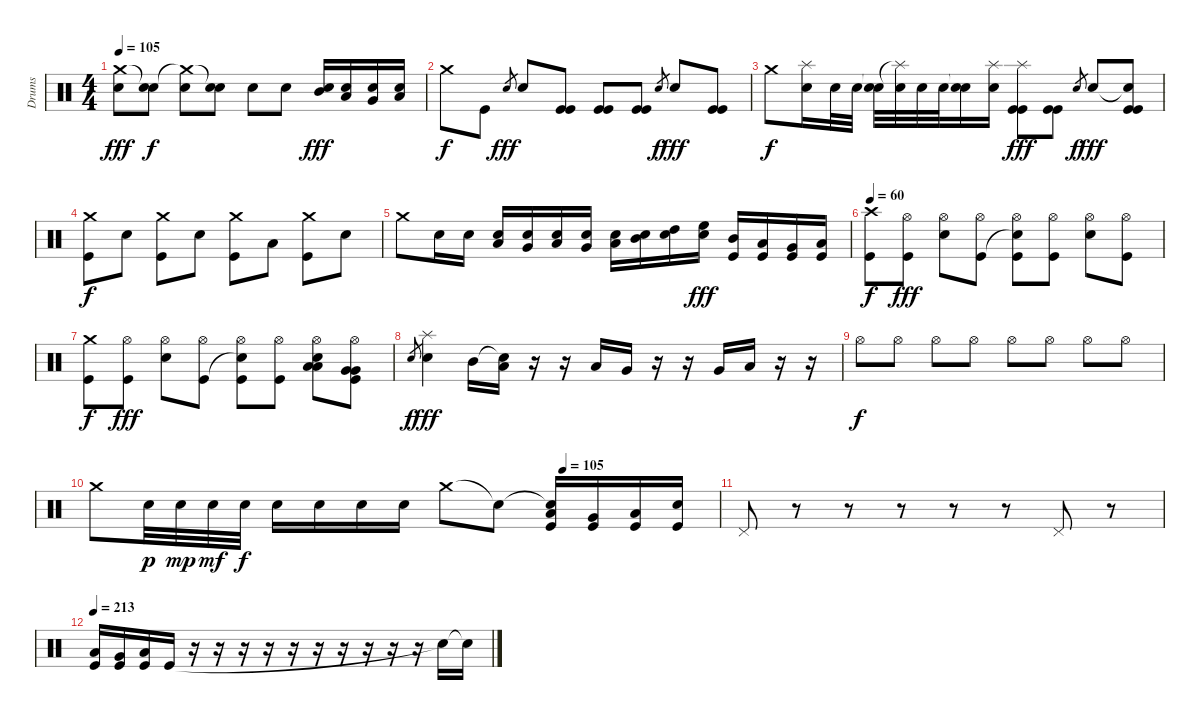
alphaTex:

\track ("Drums" "Drums") {instrument percussion}
\staff {score}
\articulation defaults
\ts (4 4)
\tempo 105
\clef neutral
\ks c
("Crash medium (hit)" "Snare (hit) 2").8{dy fff} ("Snare (hit)"{t} "Snare (hit) 2").8{dy f} ("Crash medium (hit)"{t} "Snare (hit) 2").8 ("Snare (hit)"{t} "Snare (hit) 2").8 "Snare (hit) 2".8 "Snare (hit) 2".8 ("Mid Tom (hit)" "Snare (hit) 2").16{dy fff} ("Low Tom (hit)" "Snare (hit) 2").16 ("Very Low Tom (hit)" "Snare (hit) 2").16 ("Low Floor Tom (hit)" "Snare (hit) 2").16 |
"Crash medium (hit)".8{dy f} "Kick (hit)".8 "Snare (hit) 2".8{gr dy fff} "Snare (hit) 2".8 ("Kick (hit)" "Kick (hit)").8 ("Kick (hit)" "Kick (hit)").8 ("Kick (hit)" "Kick (hit)").8 "Snare (hit) 2".8{gr dy f} "Snare (hit) 2".8{dy fff} ("Kick (hit)" "Kick (hit)").8 |
"Crash medium (hit)".8{dy f} ("Splash (hit)" "Snare (hit) 2").16 "Snare (hit) 2".32 "Snare (hit) 2".32 ("Snare (hit)"{t} "Snare (hit) 2").32 ("Splash (hit)"{t} "Snare (hit) 2").32 "Snare (hit) 2".32 "Snare (hit) 2".32 ("Snare (hit)"{t} "Snare (hit) 2").16 ("Splash (hit)" "Snare (hit) 2").16 ("Splash (hit)" "Kick (hit)" "Kick (hit)").8{dy fff} ("Kick (hit)" "Kick (hit)").8 "Snare (hit) 2".8{gr dy f} "Snare (hit) 2".8{dy fff} ("Snare (hit)"{t} "Kick (hit)" "Kick (hit)").8 |
("Crash medium (hit)" "Kick (hit)").8{dy f} "Snare (hit) 2".8 ("Crash medium (hit)" "Kick (hit)").8 "Snare (hit) 2".8 ("Crash medium (hit)" "Kick (hit)").8 "Low Tom (hit)".8 ("Crash medium (hit)" "Kick (hit)").8 "Snare (hit) 2".8 |
"Crash medium (hit)".8 "Snare (hit) 2".16 "Snare (hit) 2".16 ("Low Tom (hit)" "Snare (hit) 2").16 ("Very Low Tom (hit)" "Snare (hit) 2").16 ("Low Floor Tom (hit)" "Snare (hit) 2").16 ("Very Low Tom (hit)" "Snare (hit) 2").16 ("Low Tom (hit)" "Snare (hit) 2").16 ("Mid Tom (hit)" "Snare (hit) 2").16 ("High Tom (hit)" "Snare (hit) 2").16 ("High Floor Tom (hit)" "Snare (hit) 2").16{dy fff} ("Mid Tom (hit)" "Kick (hit)").16 ("Low Tom (hit)" "Kick (hit)").16 ("Very Low Tom (hit)" "Kick (hit)").16 ("Low Floor Tom (hit)" "Kick (hit)").16 |
\tempo 60
("Crash high (hit)" "Kick (hit)").8{dy f} ("Hi-Hat (open)" "Kick (hit)").8{dy fff} ("Hi-Hat (open)" "Snare (hit) 2").8 ("Hi-Hat (open)" "Kick (hit)").8 ("Hi-Hat (open)" "Snare (hit)"{t} "Kick (hit)").8 ("Hi-Hat (open)" "Kick (hit)").8 ("Hi-Hat (open)" "Snare (hit) 2").8 ("Hi-Hat (open)" "Kick (hit)").8 |
("Crash medium (hit)" "Kick (hit)").8{dy f} ("Hi-Hat (open)" "Kick (hit)").8{dy fff} ("Hi-Hat (open)" "Snare (hit) 2").8 ("Hi-Hat (open)" "Kick (hit)").8 ("Hi-Hat (open)" "Snare (hit)"{t} "Kick (hit)").8 ("Hi-Hat (open)" "Kick (hit)").8 ("Hi-Hat (open)" "Low Tom (hit)" "Low Tom (hit)" "Snare (hit) 2").8 ("Hi-Hat (open)" "Very Low Tom (hit)" "Very Low Tom (hit)" "Kick (hit)").8 |
"Snare (hit) 2".8{gr dy f} ("Splash (hit)" "Snare (hit) 2").4{dy fff} "Mid Tom (hit)".16 ("Snare (hit)"{t} "Low Tom (hit)").16 r.16 r.16 "Low Tom (hit)".16 "Very Low Tom (hit)".16 r.16 r.16 "Very Low Tom (hit)".16 "Low Floor Tom (hit)".16 r.16 r.16 |
"Hi-Hat (open)".8{dy f} "Hi-Hat (open)".8 "Hi-Hat (open)".8 "Hi-Hat (open)".8 "Hi-Hat (open)".8 "Hi-Hat (open)".8 "Hi-Hat (open)".8 "Hi-Hat (open)".8 |
\tempo (105 0.75)
"Crash medium (hit)".8 "Snare (hit) 2".32{dy p} "Snare (hit) 2".32{dy mp} "Snare (hit) 2".32{dy mf} "Snare (hit) 2".32{dy f} "Snare (hit) 2".16 "Snare (hit) 2".16 "Snare (hit) 2".16 "Snare (hit) 2".16 "Crash medium (hit)".8 "Snare (hit)"{t}.8 ("Snare (hit)"{t} "Low Tom (hit)" "Kick (hit)").16 ("Very Low Tom (hit)" "Kick (hit)").16 ("Low Floor Tom (hit)" "Kick (hit)").16 ("Snare (hit) 2" "Kick (hit)").16 |
"Pedal Hi-Hat (hit)".8 r.8 r.8 r.8 r.8 r.8 "Pedal Hi-Hat (hit)".8 r.8 |
\tempo 213
("Low Tom (hit)" "Kick (hit)").16 ("Very Low Tom (hit)" "Kick (hit)").16 ("Low Floor Tom (hit)" "Kick (hit)").16 "Kick (hit)".16 r.16 r.16 r.16 r.16 r.16 r.16 r.16 r.16 r.16 r.16 "Snare (hit)"{t}.16 "Snare (hit)"{t}.16
